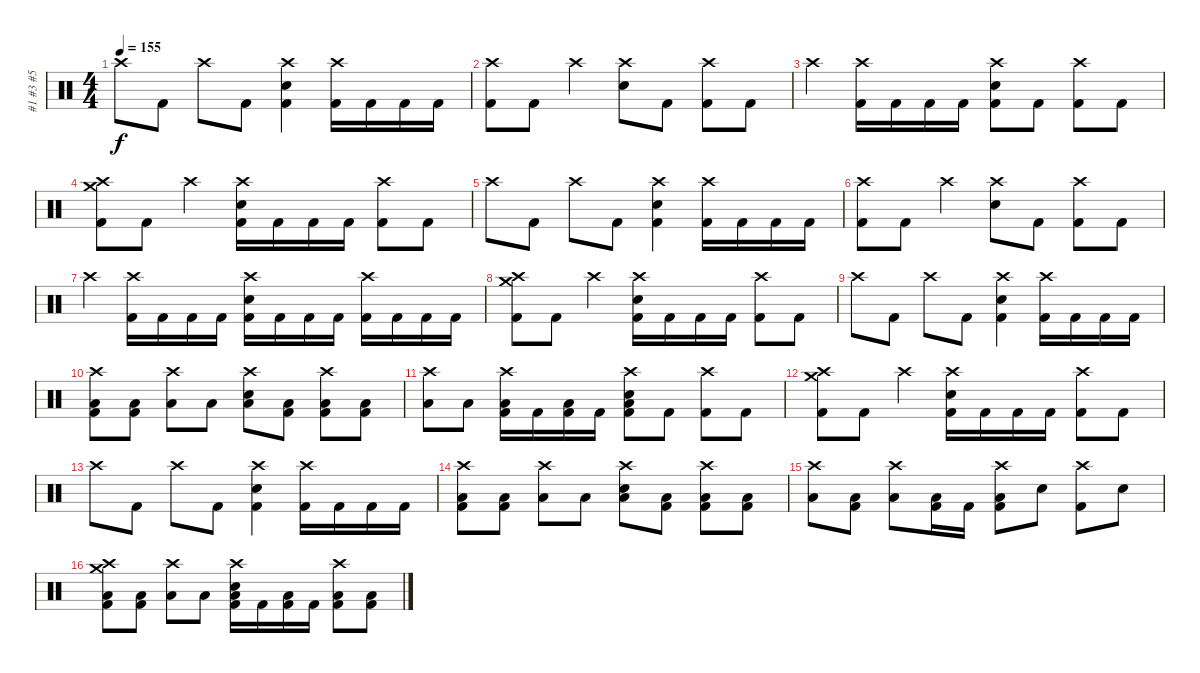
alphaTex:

\track ("#1 #3 #5" "#1 #3 #5") {instrument percussion}
\staff {score}
\articulation defaults
\ts (4 4)
\tempo 155
\clef neutral
\ks c "Crash high (hit)".8{dy f} "Kick (hit) 2".8 "Crash high (hit)".8 "Kick (hit) 2".8
("Crash high (hit)" "Electric Snare (hit)" "Kick (hit) 2").4 ("Crash high (hit)" "Kick (hit) 2").16 "Kick (hit) 2".16 "Kick (hit) 2".16 "Kick (hit) 2".16 |
("Crash high (hit)" "Kick (hit) 2").8 "Kick (hit) 2".8 "Crash high (hit)".4 ("Crash high (hit)" "Electric Snare (hit)").8 "Kick (hit) 2".8 ("Crash high (hit)" "Kick (hit) 2").8 "Kick (hit) 2".8 |
"Crash high (hit)".4 ("Crash high (hit)" "Kick (hit) 2").16 "Kick (hit) 2".16 "Kick (hit) 2".16 "Kick (hit) 2".16 ("Crash high (hit)" "Electric Snare (hit)" "Kick (hit) 2").8 "Kick (hit) 2".8 ("Crash high (hit)" "Kick (hit) 2").8 "Kick (hit) 2".8 |
("Crash medium (hit)" "Crash high (hit)" "Kick (hit) 2").8 "Kick (hit) 2".8 "Crash high (hit)".4 ("Crash high (hit)" "Electric Snare (hit)" "Kick (hit) 2").16 "Kick (hit) 2".16 "Kick (hit) 2".16 "Kick (hit) 2".16 ("Crash high (hit)" "Kick (hit) 2").8 "Kick (hit) 2".8 |
"Crash high (hit)".8 "Kick (hit) 2".8 "Crash high (hit)".8 "Kick (hit) 2".8 ("Crash high (hit)" "Electric Snare (hit)" "Kick (hit) 2").4 ("Crash high (hit)" "Kick (hit) 2").16 "Kick (hit) 2".16 "Kick (hit) 2".16 "Kick (hit) 2".16 |
("Crash high (hit)" "Kick (hit) 2").8 "Kick (hit) 2".8 "Crash high (hit)".4 ("Crash high (hit)" "Electric Snare (hit)").8 "Kick (hit) 2".8 ("Crash high (hit)" "Kick (hit) 2").8 "Kick (hit) 2".8 |
"Crash high (hit)".4 ("Crash high (hit)" "Kick (hit) 2").16 "Kick (hit) 2".16 "Kick (hit) 2".16 "Kick (hit) 2".16 ("Crash high (hit)" "Electric Snare (hit)" "Kick (hit) 2").16 "Kick (hit) 2".16 "Kick (hit) 2".16 "Kick (hit) 2".16 ("Crash high (hit)" "Kick (hit) 2").16 "Kick (hit) 2".16 "Kick (hit) 2".16 "Kick (hit) 2".16 |
("Crash medium (hit)" "Crash high (hit)" "Kick (hit) 2").8 "Kick (hit) 2".8 "Crash high (hit)".4 ("Crash high (hit)" "Electric Snare (hit)" "Kick (hit) 2").16 "Kick (hit) 2".16 "Kick (hit) 2".16 "Kick (hit) 2".16 ("Crash high (hit)" "Kick (hit) 2").8 "Kick (hit) 2".8 |
"Crash high (hit)".8 "Kick (hit) 2".8 "Crash high (hit)".8 "Kick (hit) 2".8 ("Crash high (hit)" "Electric Snare (hit)" "Kick (hit) 2").4 ("Crash high (hit)" "Kick (hit) 2").16 "Kick (hit) 2".16 "Kick (hit) 2".16 "Kick (hit) 2".16 |
("Low Tom (hit)" "Crash high (hit)" "Kick (hit) 2").8 ("Low Floor Tom (hit)" "Kick (hit) 2").8 ("Low Floor Tom (hit)" "Crash high (hit)").8 "Low Floor Tom (hit)".8 ("Low Tom (hit)" "Crash high (hit)" "Electric Snare (hit)").8 ("Low Floor Tom (hit)" "Kick (hit) 2").8 ("Low Floor Tom (hit)" "Crash high (hit)" "Kick (hit) 2").8 ("Low Floor Tom (hit)" "Kick (hit) 2").8 |
("Low Tom (hit)" "Crash high (hit)").8 "Low Floor Tom (hit)".8 ("Low Floor Tom (hit)" "Crash high (hit)" "Kick (hit) 2").16 "Kick (hit) 2".16 ("Low Floor Tom (hit)" "Kick (hit) 2").16 "Kick (hit) 2".16 ("Low Tom (hit)" "Crash high (hit)" "Electric Snare (hit)" "Kick (hit) 2").8 "Kick (hit) 2".8 ("Crash high (hit)" "Kick (hit) 2").8 "Kick (hit) 2".8 |
("Crash medium (hit)" "Crash high (hit)" "Kick (hit) 2").8 "Kick (hit) 2".8 "Crash high (hit)".4 ("Crash high (hit)" "Electric Snare (hit)" "Kick (hit) 2").16 "Kick (hit) 2".16 "Kick (hit) 2".16 "Kick (hit) 2".16 ("Crash high (hit)" "Kick (hit) 2").8 "Kick (hit) 2".8 |
"Crash high (hit)".8 "Kick (hit) 2".8 "Crash high (hit)".8 "Kick (hit) 2".8 ("Crash high (hit)" "Electric Snare (hit)" "Kick (hit) 2").4 ("Crash high (hit)" "Kick (hit) 2").16 "Kick (hit) 2".16 "Kick (hit) 2".16 "Kick (hit) 2".16 |
("Low Tom (hit)" "Crash high (hit)" "Kick (hit) 2").8 ("Low Floor Tom (hit)" "Kick (hit) 2").8 ("Low Floor Tom (hit)" "Crash high (hit)").8 "Low Floor Tom (hit)".8 ("Low Tom (hit)" "Crash high (hit)" "Electric Snare (hit)").8 ("Low Floor Tom (hit)" "Kick (hit) 2").8 ("Low Floor Tom (hit)" "Crash high (hit)" "Kick (hit) 2").8 ("Low Floor Tom (hit)" "Kick (hit) 2").8 |
("Low Tom (hit)" "Crash high (hit)").8 ("Low Floor Tom (hit)" "Kick (hit) 2").8 ("Low Floor Tom (hit)" "Crash high (hit)").8 ("Low Floor Tom (hit)" "Kick (hit) 2").16 "Kick (hit) 2".16 ("Low Tom (hit)" "Crash high (hit)" "Kick (hit) 2").8 "Electric Snare (hit)".8 ("Crash high (hit)" "Kick (hit) 2").8 "Electric Snare (hit)".8 |
("Low Tom (hit)" "Crash high (hit)" "Crash medium (hit)" "Kick (hit) 2").8 ("Low Floor Tom (hit)" "Kick (hit) 2").8 ("Low Floor Tom (hit)" "Crash high (hit)").8 "Low Floor Tom (hit)".8 ("Low Floor Tom (hit)" "Crash high (hit)" "Electric Snare (hit)" "Kick (hit) 2").16 "Kick (hit) 2".16 ("Low Floor Tom (hit)" "Kick (hit) 2").16 "Kick (hit) 2".16 ("Low Floor Tom (hit)" "Crash high (hit)" "Kick (hit) 2").8 ("Low Floor Tom (hit)" "Kick (hit) 2").8
